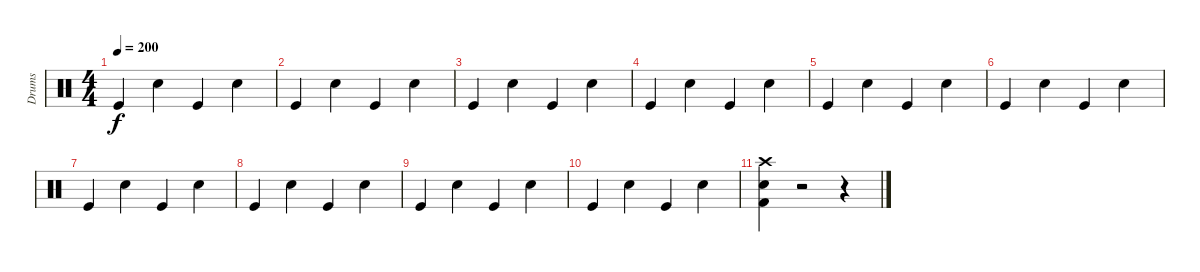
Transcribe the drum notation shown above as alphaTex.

\track ("Drums" "Drums") {instrument percussion}
\staff {score}
\articulation defaults
\ts (4 4)
\tempo 200
\clef neutral
\ks c "Kick (hit)".4{dy f} "Snare (hit) 2".4 "Kick (hit)".4 "Snare (hit) 2".4
|
"Kick (hit)".4 "Snare (hit) 2".4 "Kick (hit)".4 "Snare (hit) 2".4 |
"Kick (hit)".4 "Snare (hit) 2".4 "Kick (hit)".4 "Snare (hit) 2".4 |
"Kick (hit)".4 "Snare (hit) 2".4 "Kick (hit)".4 "Snare (hit) 2".4 |
"Kick (hit)".4 "Snare (hit) 2".4 "Kick (hit)".4 "Snare (hit) 2".4 |
"Kick (hit)".4 "Snare (hit) 2".4 "Kick (hit)".4 "Snare (hit) 2".4 |
"Kick (hit)".4 "Snare (hit) 2".4 "Kick (hit)".4 "Snare (hit) 2".4 |
"Kick (hit)".4 "Snare (hit) 2".4 "Kick (hit)".4 "Snare (hit) 2".4 |
"Kick (hit)".4 "Snare (hit) 2".4 "Kick (hit)".4 "Snare (hit) 2".4 |
"Kick (hit)".4 "Snare (hit) 2".4 "Kick (hit)".4 "Snare (hit) 2".4 |
("Kick (hit) 2" "Snare (hit) 2" "Crash high (hit)").4 r.2 r.4
